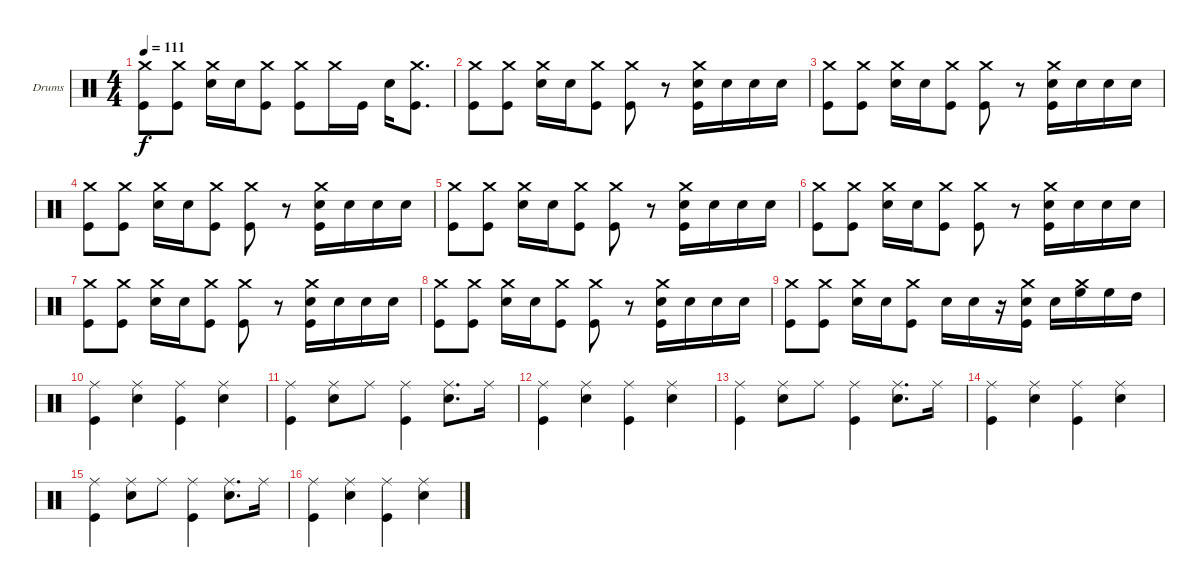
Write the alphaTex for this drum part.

\bracketExtendMode groupsimilarinstruments
\firstSystemTrackNameOrientation horizontal
\otherSystemsTrackNameOrientation horizontal
\track ("Drumkit" "Drums") {instrument percussion}
\staff {score}
\articulation defaults
\ts (4 4)
\tempo 111
\clef neutral
\ks c
("Crash medium (hit)" "Kick (hit)").8{dy f} ("Crash medium (hit)" "Kick (hit)").8 ("Crash medium (hit)" "Snare (hit) 2").16 "Snare (hit) 2".16 ("Crash medium (hit)" "Kick (hit)").8 ("Crash medium (hit)" "Kick (hit)").8 "Crash medium (hit)".16 "Kick (hit)".16 "Snare (hit) 2".16 ("Crash medium (hit)" "Kick (hit)").8{d} |
("Crash medium (hit)" "Kick (hit)").8 ("Crash medium (hit)" "Kick (hit)").8 ("Crash medium (hit)" "Snare (hit) 2").16 "Snare (hit) 2".16 ("Crash medium (hit)" "Kick (hit)").8 ("Crash medium (hit)" "Kick (hit)").8 r.8 ("Crash medium (hit)" "Snare (hit) 2" "Kick (hit)").16 "Snare (hit) 2".16 "Snare (hit) 2".16 "Snare (hit) 2".16 |
("Crash medium (hit)" "Kick (hit)").8 ("Crash medium (hit)" "Kick (hit)").8 ("Crash medium (hit)" "Snare (hit) 2").16 "Snare (hit) 2".16 ("Crash medium (hit)" "Kick (hit)").8 ("Crash medium (hit)" "Kick (hit)").8 r.8 ("Crash medium (hit)" "Snare (hit) 2" "Kick (hit)").16 "Snare (hit) 2".16 "Snare (hit) 2".16 "Snare (hit) 2".16 |
("Crash medium (hit)" "Kick (hit)").8 ("Crash medium (hit)" "Kick (hit)").8 ("Crash medium (hit)" "Snare (hit) 2").16 "Snare (hit) 2".16 ("Crash medium (hit)" "Kick (hit)").8 ("Crash medium (hit)" "Kick (hit)").8 r.8 ("Crash medium (hit)" "Snare (hit) 2" "Kick (hit)").16 "Snare (hit) 2".16 "Snare (hit) 2".16 "Snare (hit) 2".16 |
("Crash medium (hit)" "Kick (hit)").8 ("Crash medium (hit)" "Kick (hit)").8 ("Crash medium (hit)" "Snare (hit) 2").16 "Snare (hit) 2".16 ("Crash medium (hit)" "Kick (hit)").8 ("Crash medium (hit)" "Kick (hit)").8 r.8 ("Crash medium (hit)" "Snare (hit) 2" "Kick (hit)").16 "Snare (hit) 2".16 "Snare (hit) 2".16 "Snare (hit) 2".16 |
("Crash medium (hit)" "Kick (hit)").8 ("Crash medium (hit)" "Kick (hit)").8 ("Crash medium (hit)" "Snare (hit) 2").16 "Snare (hit) 2".16 ("Crash medium (hit)" "Kick (hit)").8 ("Crash medium (hit)" "Kick (hit)").8 r.8 ("Crash medium (hit)" "Snare (hit) 2" "Kick (hit)").16 "Snare (hit) 2".16 "Snare (hit) 2".16 "Snare (hit) 2".16 |
("Crash medium (hit)" "Kick (hit)").8 ("Crash medium (hit)" "Kick (hit)").8 ("Crash medium (hit)" "Snare (hit) 2").16 "Snare (hit) 2".16 ("Crash medium (hit)" "Kick (hit)").8 ("Crash medium (hit)" "Kick (hit)").8 r.8 ("Crash medium (hit)" "Snare (hit) 2" "Kick (hit)").16 "Snare (hit) 2".16 "Snare (hit) 2".16 "Snare (hit) 2".16 |
("Crash medium (hit)" "Kick (hit)").8 ("Crash medium (hit)" "Kick (hit)").8 ("Crash medium (hit)" "Snare (hit) 2").16 "Snare (hit) 2".16 ("Crash medium (hit)" "Kick (hit)").8 ("Crash medium (hit)" "Kick (hit)").8 r.8 ("Crash medium (hit)" "Snare (hit) 2" "Kick (hit)").16 "Snare (hit) 2".16 "Snare (hit) 2".16 "Snare (hit) 2".16 |
("Crash medium (hit)" "Kick (hit)").8 ("Crash medium (hit)" "Kick (hit)").8 ("Crash medium (hit)" "Snare (hit) 2").16 "Snare (hit) 2".16 ("Crash medium (hit)" "Kick (hit)").8 "Snare (hit) 2".16 "Snare (hit) 2".16 r.16 ("Crash medium (hit)" "Snare (hit) 2" "Kick (hit)").16 "Snare (hit) 2".16 ("Crash medium (hit)" "High Floor Tom (hit)").16 "High Floor Tom (hit)".16 "High Tom (hit)".16 |
("Ride (middle)" "Kick (hit)").4 ("Ride (middle)" "Snare (hit) 2").4 ("Ride (middle)" "Kick (hit)").4 ("Ride (middle)" "Snare (hit) 2").4 |
("Ride (middle)" "Kick (hit)").4 ("Ride (middle)" "Snare (hit) 2").8 "Ride (middle)".8 ("Ride (middle)" "Kick (hit)").4 ("Ride (middle)" "Snare (hit) 2").8{d} "Ride (middle)".16 |
("Ride (middle)" "Kick (hit)").4 ("Ride (middle)" "Snare (hit) 2").4 ("Ride (middle)" "Kick (hit)").4 ("Ride (middle)" "Snare (hit) 2").4 |
("Ride (middle)" "Kick (hit)").4 ("Ride (middle)" "Snare (hit) 2").8 "Ride (middle)".8 ("Ride (middle)" "Kick (hit)").4 ("Ride (middle)" "Snare (hit) 2").8{d} "Ride (middle)".16 |
("Ride (middle)" "Kick (hit)").4 ("Ride (middle)" "Snare (hit) 2").4 ("Ride (middle)" "Kick (hit)").4 ("Ride (middle)" "Snare (hit) 2").4 |
("Ride (middle)" "Kick (hit)").4 ("Ride (middle)" "Snare (hit) 2").8 "Ride (middle)".8 ("Ride (middle)" "Kick (hit)").4 ("Ride (middle)" "Snare (hit) 2").8{d} "Ride (middle)".16 |
("Ride (middle)" "Kick (hit)").4 ("Ride (middle)" "Snare (hit) 2").4 ("Ride (middle)" "Kick (hit)").4 ("Ride (middle)" "Snare (hit) 2").4
